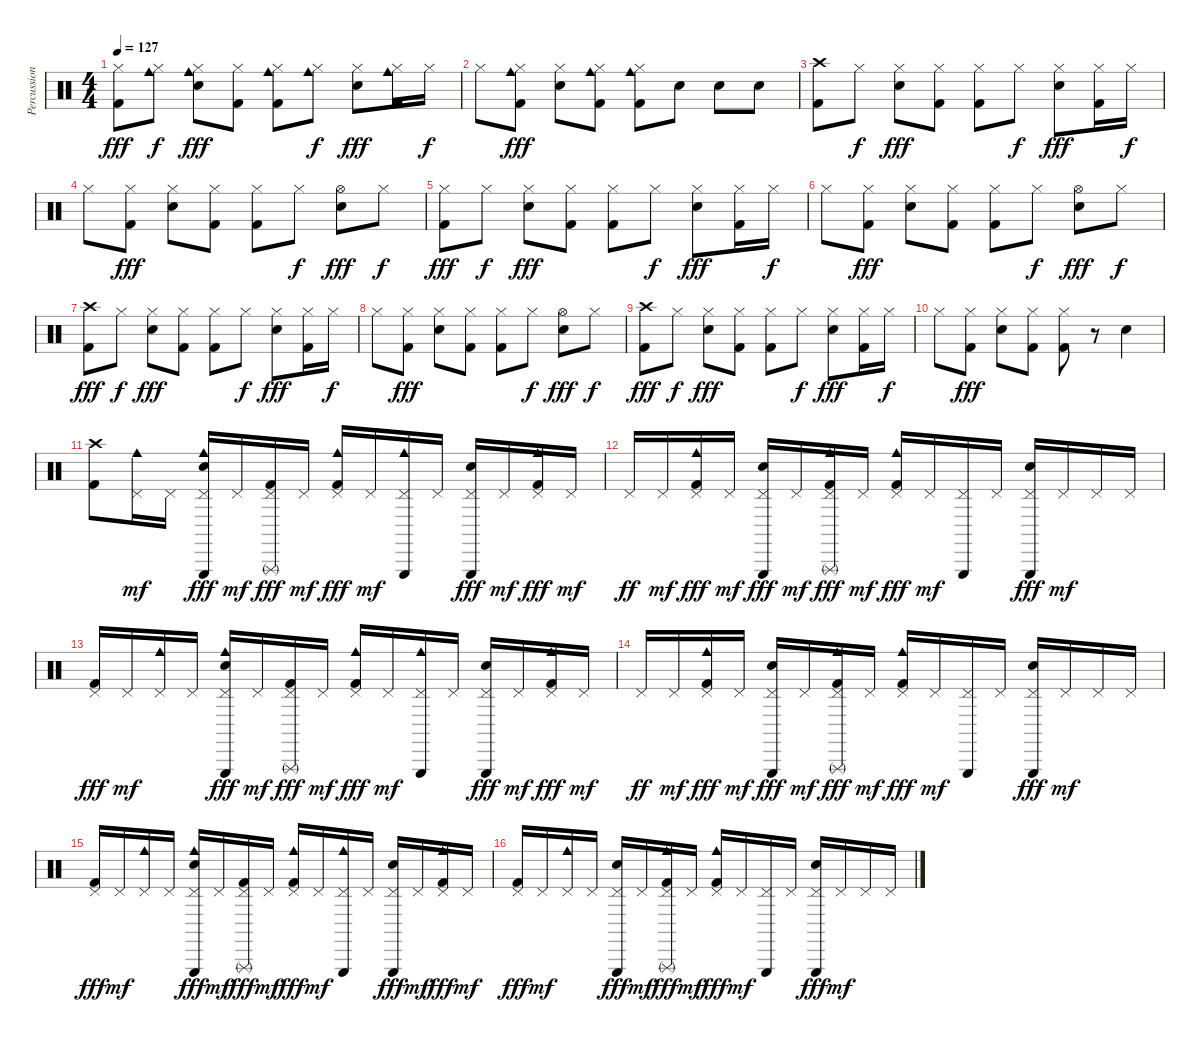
\track ("Percussion" "Percussion") {instrument percussion}
\staff {score}
\articulation defaults
\ts (4 4)
\tempo 127
\clef neutral
\ks c
("Hi-Hat (closed)" "Kick (hit) 2").8{dy fff} ("Hi-Hat (closed)" "Cowbell medium (hit)").8{dy f} ("Hi-Hat (closed)" "Cowbell medium (hit)" "Electric Snare (hit)").8{dy fff} ("Hi-Hat (closed)" "Kick (hit) 2").8 ("Hi-Hat (closed)" "Cowbell medium (hit)" "Kick (hit) 2").8 ("Hi-Hat (closed)" "Cowbell medium (hit)").8{dy f} ("Hi-Hat (closed)" "Electric Snare (hit)").8{dy fff} ("Hi-Hat (closed)" "Cowbell medium (hit)" "Kick (hit) 2").16 "Hi-Hat (closed)".16{dy f} |
"Hi-Hat (closed)".8 ("Hi-Hat (closed)" "Cowbell medium (hit)" "Kick (hit) 2").8{dy fff} ("Hi-Hat (closed)" "Electric Snare (hit)").8 ("Hi-Hat (closed)" "Cowbell medium (hit)" "Kick (hit) 2").8 ("Hi-Hat (closed)" "Cowbell medium (hit)" "Kick (hit) 2").8 "Electric Snare (hit)".8 "Electric Snare (hit)".8 "Electric Snare (hit)".8 |
("Crash high (hit)" "Kick (hit) 2").8 "Hi-Hat (closed)".8{dy f} ("Hi-Hat (closed)" "Electric Snare (hit)").8{dy fff} ("Hi-Hat (closed)" "Kick (hit) 2").8 ("Hi-Hat (closed)" "Kick (hit) 2").8 "Hi-Hat (closed)".8{dy f} ("Hi-Hat (closed)" "Electric Snare (hit)").8{dy fff} ("Hi-Hat (closed)" "Kick (hit) 2").16 "Hi-Hat (closed)".16{dy f} |
"Hi-Hat (closed)".8 ("Hi-Hat (closed)" "Kick (hit) 2").8{dy fff} ("Hi-Hat (closed)" "Electric Snare (hit)").8 ("Hi-Hat (closed)" "Kick (hit) 2").8 ("Hi-Hat (closed)" "Kick (hit) 2").8 "Hi-Hat (closed)".8{dy f} ("Hi-Hat (open)" "Electric Snare (hit)").8{dy fff} "Hi-Hat (closed)".8{dy f} |
("Hi-Hat (closed)" "Kick (hit) 2").8{dy fff} "Hi-Hat (closed)".8{dy f} ("Hi-Hat (closed)" "Electric Snare (hit)").8{dy fff} ("Hi-Hat (closed)" "Kick (hit) 2").8 ("Hi-Hat (closed)" "Kick (hit) 2").8 "Hi-Hat (closed)".8{dy f} ("Hi-Hat (closed)" "Electric Snare (hit)").8{dy fff} ("Hi-Hat (closed)" "Kick (hit) 2").16 "Hi-Hat (closed)".16{dy f} |
"Hi-Hat (closed)".8 ("Hi-Hat (closed)" "Kick (hit) 2").8{dy fff} ("Hi-Hat (closed)" "Electric Snare (hit)").8 ("Hi-Hat (closed)" "Kick (hit) 2").8 ("Hi-Hat (closed)" "Kick (hit) 2").8 "Hi-Hat (closed)".8{dy f} ("Hi-Hat (open)" "Electric Snare (hit)").8{dy fff} "Hi-Hat (closed)".8{dy f} |
("Crash high (hit)" "Kick (hit) 2").8{dy fff} "Hi-Hat (closed)".8{dy f} ("Hi-Hat (closed)" "Electric Snare (hit)").8{dy fff} ("Hi-Hat (closed)" "Kick (hit) 2").8 ("Hi-Hat (closed)" "Kick (hit) 2").8 "Hi-Hat (closed)".8{dy f} ("Hi-Hat (closed)" "Electric Snare (hit)").8{dy fff} ("Hi-Hat (closed)" "Kick (hit) 2").16 "Hi-Hat (closed)".16{dy f} |
"Hi-Hat (closed)".8 ("Hi-Hat (closed)" "Kick (hit) 2").8{dy fff} ("Hi-Hat (closed)" "Electric Snare (hit)").8 ("Hi-Hat (closed)" "Kick (hit) 2").8 ("Hi-Hat (closed)" "Kick (hit) 2").8 "Hi-Hat (closed)".8{dy f} ("Hi-Hat (open)" "Electric Snare (hit)").8{dy fff} "Hi-Hat (closed)".8{dy f} |
("Crash high (hit)" "Kick (hit) 2").8{dy fff} "Hi-Hat (closed)".8{dy f} ("Hi-Hat (closed)" "Electric Snare (hit)").8{dy fff} ("Hi-Hat (closed)" "Kick (hit) 2").8 ("Hi-Hat (closed)" "Kick (hit) 2").8 "Hi-Hat (closed)".8{dy f} ("Hi-Hat (closed)" "Electric Snare (hit)").8{dy fff} ("Hi-Hat (closed)" "Kick (hit) 2").16 "Hi-Hat (closed)".16{dy f} |
"Hi-Hat (closed)".8 ("Hi-Hat (closed)" "Kick (hit) 2").8{dy fff} ("Hi-Hat (closed)" "Electric Snare (hit)").8 ("Hi-Hat (closed)" "Kick (hit) 2").8 ("Hi-Hat (closed)" "Kick (hit) 2").8 r.8 "Electric Snare (hit)".4 |
("Crash high (hit)" "Kick (hit) 2").8 ("Pedal Hi-Hat (hit)" "Cowbell medium (hit)").16{dy mf} "Pedal Hi-Hat (hit)".16 ("Pedal Hi-Hat (hit)" "Triangle (hit)" "Electric Snare (hit)" "Cowbell medium (hit)").16{dy fff} "Pedal Hi-Hat (hit)".16{dy mf} ("Pedal Hi-Hat (hit)" "Triangle (rnute)" "Kick (hit) 2").16{dy fff} "Pedal Hi-Hat (hit)".16{dy mf} ("Pedal Hi-Hat (hit)" "Cowbell medium (hit)" "Kick (hit) 2").16{dy fff} "Pedal Hi-Hat (hit)".16{dy mf} ("Pedal Hi-Hat (hit)" "Triangle (hit)" "Cowbell medium (hit)").16 "Pedal Hi-Hat (hit)".16 ("Pedal Hi-Hat (hit)" "Triangle (hit)" "Electric Snare (hit)").16{dy fff} "Pedal Hi-Hat (hit)".16{dy mf} ("Pedal Hi-Hat (hit)" "Cowbell medium (hit)" "Kick (hit) 2").16{dy fff} "Pedal Hi-Hat (hit)".16{dy mf} |
"Pedal Hi-Hat (hit)".16{dy ff} "Pedal Hi-Hat (hit)".16{dy mf} ("Pedal Hi-Hat (hit)" "Cowbell medium (hit)" "Kick (hit) 2").16{dy fff} "Pedal Hi-Hat (hit)".16{dy mf} ("Pedal Hi-Hat (hit)" "Triangle (hit)" "Electric Snare (hit)").16{dy fff} "Pedal Hi-Hat (hit)".16{dy mf} ("Pedal Hi-Hat (hit)" "Triangle (rnute)" "Cowbell medium (hit)" "Kick (hit) 2").16{dy fff} "Pedal Hi-Hat (hit)".16{dy mf} ("Pedal Hi-Hat (hit)" "Cowbell medium (hit)" "Kick (hit) 2").16{dy fff} "Pedal Hi-Hat (hit)".16{dy mf} ("Pedal Hi-Hat (hit)" "Triangle (hit)").16 "Pedal Hi-Hat (hit)".16 ("Pedal Hi-Hat (hit)" "Triangle (hit)" "Electric Snare (hit)").16{dy fff} "Pedal Hi-Hat (hit)".16{dy mf} "Pedal Hi-Hat (hit)".16 "Pedal Hi-Hat (hit)".16 |
("Pedal Hi-Hat (hit)" "Kick (hit) 2").16{dy fff} "Pedal Hi-Hat (hit)".16{dy mf} ("Pedal Hi-Hat (hit)" "Cowbell medium (hit)").16 "Pedal Hi-Hat (hit)".16 ("Pedal Hi-Hat (hit)" "Triangle (hit)" "Electric Snare (hit)" "Cowbell medium (hit)").16{dy fff} "Pedal Hi-Hat (hit)".16{dy mf} ("Pedal Hi-Hat (hit)" "Triangle (rnute)" "Kick (hit) 2").16{dy fff} "Pedal Hi-Hat (hit)".16{dy mf} ("Pedal Hi-Hat (hit)" "Cowbell medium (hit)" "Kick (hit) 2").16{dy fff} "Pedal Hi-Hat (hit)".16{dy mf} ("Pedal Hi-Hat (hit)" "Triangle (hit)" "Cowbell medium (hit)").16 "Pedal Hi-Hat (hit)".16 ("Pedal Hi-Hat (hit)" "Triangle (hit)" "Electric Snare (hit)").16{dy fff} "Pedal Hi-Hat (hit)".16{dy mf} ("Pedal Hi-Hat (hit)" "Cowbell medium (hit)" "Kick (hit) 2").16{dy fff} "Pedal Hi-Hat (hit)".16{dy mf} |
"Pedal Hi-Hat (hit)".16{dy ff} "Pedal Hi-Hat (hit)".16{dy mf} ("Pedal Hi-Hat (hit)" "Cowbell medium (hit)" "Kick (hit) 2").16{dy fff} "Pedal Hi-Hat (hit)".16{dy mf} ("Pedal Hi-Hat (hit)" "Triangle (hit)" "Electric Snare (hit)").16{dy fff} "Pedal Hi-Hat (hit)".16{dy mf} ("Pedal Hi-Hat (hit)" "Triangle (rnute)" "Cowbell medium (hit)" "Kick (hit) 2").16{dy fff} "Pedal Hi-Hat (hit)".16{dy mf} ("Pedal Hi-Hat (hit)" "Cowbell medium (hit)" "Kick (hit) 2").16{dy fff} "Pedal Hi-Hat (hit)".16{dy mf} ("Pedal Hi-Hat (hit)" "Triangle (hit)").16 "Pedal Hi-Hat (hit)".16 ("Pedal Hi-Hat (hit)" "Triangle (hit)" "Electric Snare (hit)").16{dy fff} "Pedal Hi-Hat (hit)".16{dy mf} "Pedal Hi-Hat (hit)".16 "Pedal Hi-Hat (hit)".16 |
("Pedal Hi-Hat (hit)" "Kick (hit) 2").16{dy fff} "Pedal Hi-Hat (hit)".16{dy mf} ("Pedal Hi-Hat (hit)" "Cowbell medium (hit)").16 "Pedal Hi-Hat (hit)".16 ("Pedal Hi-Hat (hit)" "Triangle (hit)" "Electric Snare (hit)" "Cowbell medium (hit)").16{dy fff} "Pedal Hi-Hat (hit)".16{dy mf} ("Pedal Hi-Hat (hit)" "Triangle (rnute)" "Kick (hit) 2").16{dy fff} "Pedal Hi-Hat (hit)".16{dy mf} ("Pedal Hi-Hat (hit)" "Cowbell medium (hit)" "Kick (hit) 2").16{dy fff} "Pedal Hi-Hat (hit)".16{dy mf} ("Pedal Hi-Hat (hit)" "Triangle (hit)" "Cowbell medium (hit)").16 "Pedal Hi-Hat (hit)".16 ("Pedal Hi-Hat (hit)" "Triangle (hit)" "Electric Snare (hit)").16{dy fff} "Pedal Hi-Hat (hit)".16{dy mf} ("Pedal Hi-Hat (hit)" "Cowbell medium (hit)" "Kick (hit) 2").16{dy fff} "Pedal Hi-Hat (hit)".16{dy mf} |
("Pedal Hi-Hat (hit)" "Kick (hit) 2").16{dy fff} "Pedal Hi-Hat (hit)".16{dy mf} ("Pedal Hi-Hat (hit)" "Cowbell medium (hit)").16 "Pedal Hi-Hat (hit)".16 ("Pedal Hi-Hat (hit)" "Triangle (hit)" "Electric Snare (hit)").16{dy fff} "Pedal Hi-Hat (hit)".16{dy mf} ("Pedal Hi-Hat (hit)" "Triangle (rnute)" "Cowbell medium (hit)" "Kick (hit) 2").16{dy fff} "Pedal Hi-Hat (hit)".16{dy mf} ("Pedal Hi-Hat (hit)" "Cowbell medium (hit)" "Kick (hit) 2").16{dy fff} "Pedal Hi-Hat (hit)".16{dy mf} ("Pedal Hi-Hat (hit)" "Triangle (hit)").16 "Pedal Hi-Hat (hit)".16 ("Pedal Hi-Hat (hit)" "Triangle (hit)" "Electric Snare (hit)").16{dy fff} "Pedal Hi-Hat (hit)".16{dy mf} "Pedal Hi-Hat (hit)".16 "Pedal Hi-Hat (hit)".16
